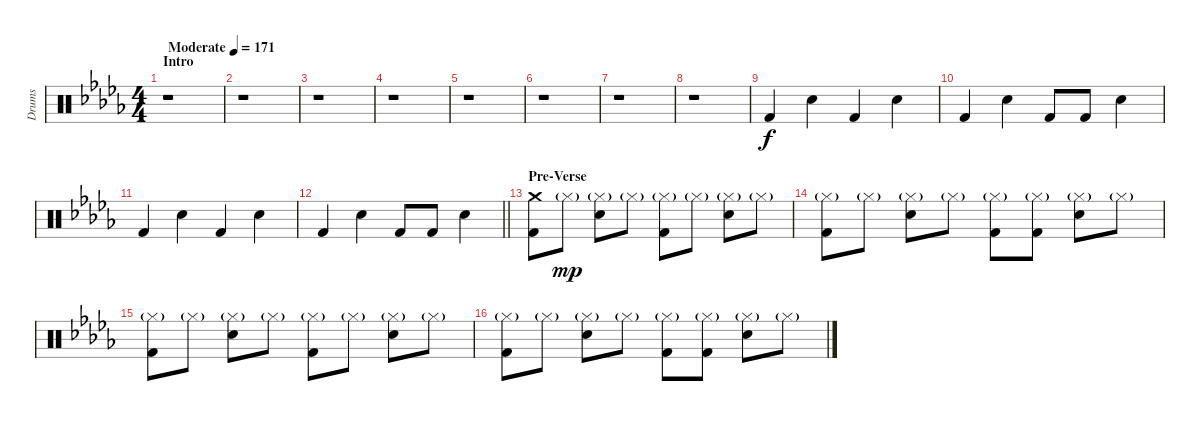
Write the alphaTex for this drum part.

\track ("Drums" "Drums") {instrument percussion}
\staff {score}
\articulation defaults
\ts (4 4)
\section ("" "Intro")
\tempo (171 "Moderate")
\clef neutral
\ks db
r.1{dy f} |
r.1 |
r.1 |
r.1 |
r.1 |
r.1 |
r.1 |
r.1 |
"Kick (hit) 2".4 "Snare (hit) 2".4 "Kick (hit) 2".4 "Snare (hit) 2".4 |
"Kick (hit) 2".4 "Snare (hit) 2".4 "Kick (hit) 2".8 "Kick (hit) 2".8 "Snare (hit) 2".4 |
"Kick (hit) 2".4 "Snare (hit) 2".4 "Kick (hit) 2".4 "Snare (hit) 2".4 |
\barLineRight lightlight "Kick (hit) 2".4 "Snare (hit) 2".4 "Kick (hit) 2".8 "Kick (hit) 2".8 "Snare (hit) 2".4
|
\section ("" "Pre-Verse")
("Crash medium (hit)" "Kick (hit) 2").8 "Hi-Hat (closed)"{g}.8{dy mp} ("Hi-Hat (closed)"{g} "Snare (hit) 2").8 "Hi-Hat (closed)"{g}.8 ("Hi-Hat (closed)"{g} "Kick (hit) 2").8 "Hi-Hat (closed)"{g}.8 ("Hi-Hat (closed)"{g} "Snare (hit) 2").8 "Hi-Hat (closed)"{g}.8 |
("Hi-Hat (closed)"{g} "Kick (hit) 2").8 "Hi-Hat (closed)"{g}.8 ("Hi-Hat (closed)"{g} "Snare (hit) 2").8 "Hi-Hat (closed)"{g}.8 ("Hi-Hat (closed)"{g} "Kick (hit) 2").8 ("Hi-Hat (closed)"{g} "Kick (hit) 2").8 ("Hi-Hat (closed)"{g} "Snare (hit) 2").8 "Hi-Hat (closed)"{g}.8 |
("Hi-Hat (closed)"{g} "Kick (hit) 2").8 "Hi-Hat (closed)"{g}.8 ("Hi-Hat (closed)"{g} "Snare (hit) 2").8 "Hi-Hat (closed)"{g}.8 ("Hi-Hat (closed)"{g} "Kick (hit) 2").8 "Hi-Hat (closed)"{g}.8 ("Hi-Hat (closed)"{g} "Snare (hit) 2").8 "Hi-Hat (closed)"{g}.8 |
("Hi-Hat (closed)"{g} "Kick (hit) 2").8 "Hi-Hat (closed)"{g}.8 ("Hi-Hat (closed)"{g} "Snare (hit) 2").8 "Hi-Hat (closed)"{g}.8 ("Hi-Hat (closed)"{g} "Kick (hit) 2").8 ("Hi-Hat (closed)"{g} "Kick (hit) 2").8 ("Hi-Hat (closed)"{g} "Snare (hit) 2").8 "Hi-Hat (closed)"{g}.8
